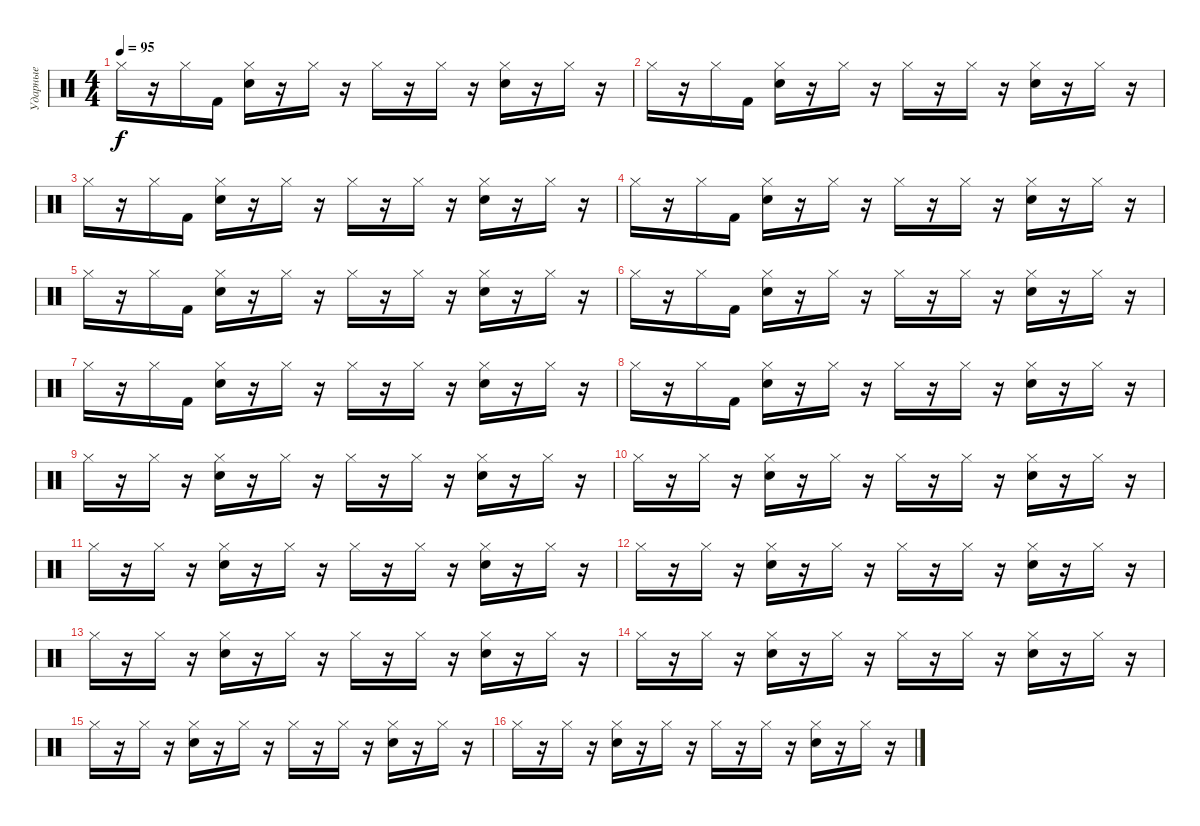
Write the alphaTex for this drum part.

\track ("Ударные" "Ударные") {instrument percussion}
\staff {score}
\articulation defaults
\ts (4 4)
\tempo 95
\clef neutral
\ks c "Hi-Hat (closed)".16{dy f}
r.16 "Hi-Hat (closed)".16 "Kick (hit) 2".16 ("Hi-Hat (closed)" "Electric Snare (hit)").16 r.16 "Hi-Hat (closed)".16 r.16 "Hi-Hat (closed)".16 r.16 "Hi-Hat (closed)".16 r.16 ("Hi-Hat (closed)" "Electric Snare (hit)").16 r.16 "Hi-Hat (closed)".16 r.16 |
"Hi-Hat (closed)".16 r.16 "Hi-Hat (closed)".16 "Kick (hit) 2".16 ("Hi-Hat (closed)" "Electric Snare (hit)").16 r.16 "Hi-Hat (closed)".16 r.16 "Hi-Hat (closed)".16 r.16 "Hi-Hat (closed)".16 r.16 ("Hi-Hat (closed)" "Electric Snare (hit)").16 r.16 "Hi-Hat (closed)".16 r.16 |
"Hi-Hat (closed)".16 r.16 "Hi-Hat (closed)".16 "Kick (hit) 2".16 ("Hi-Hat (closed)" "Electric Snare (hit)").16 r.16 "Hi-Hat (closed)".16 r.16 "Hi-Hat (closed)".16 r.16 "Hi-Hat (closed)".16 r.16 ("Hi-Hat (closed)" "Electric Snare (hit)").16 r.16 "Hi-Hat (closed)".16 r.16 |
"Hi-Hat (closed)".16 r.16 "Hi-Hat (closed)".16 "Kick (hit) 2".16 ("Hi-Hat (closed)" "Electric Snare (hit)").16 r.16 "Hi-Hat (closed)".16 r.16 "Hi-Hat (closed)".16 r.16 "Hi-Hat (closed)".16 r.16 ("Hi-Hat (closed)" "Electric Snare (hit)").16 r.16 "Hi-Hat (closed)".16 r.16 |
"Hi-Hat (closed)".16 r.16 "Hi-Hat (closed)".16 "Kick (hit) 2".16 ("Hi-Hat (closed)" "Electric Snare (hit)").16 r.16 "Hi-Hat (closed)".16 r.16 "Hi-Hat (closed)".16 r.16 "Hi-Hat (closed)".16 r.16 ("Hi-Hat (closed)" "Electric Snare (hit)").16 r.16 "Hi-Hat (closed)".16 r.16 |
"Hi-Hat (closed)".16 r.16 "Hi-Hat (closed)".16 "Kick (hit) 2".16 ("Hi-Hat (closed)" "Electric Snare (hit)").16 r.16 "Hi-Hat (closed)".16 r.16 "Hi-Hat (closed)".16 r.16 "Hi-Hat (closed)".16 r.16 ("Hi-Hat (closed)" "Electric Snare (hit)").16 r.16 "Hi-Hat (closed)".16 r.16 |
"Hi-Hat (closed)".16 r.16 "Hi-Hat (closed)".16 "Kick (hit) 2".16 ("Hi-Hat (closed)" "Electric Snare (hit)").16 r.16 "Hi-Hat (closed)".16 r.16 "Hi-Hat (closed)".16 r.16 "Hi-Hat (closed)".16 r.16 ("Hi-Hat (closed)" "Electric Snare (hit)").16 r.16 "Hi-Hat (closed)".16 r.16 |
"Hi-Hat (closed)".16 r.16 "Hi-Hat (closed)".16 "Kick (hit) 2".16 ("Hi-Hat (closed)" "Electric Snare (hit)").16 r.16 "Hi-Hat (closed)".16 r.16 "Hi-Hat (closed)".16 r.16 "Hi-Hat (closed)".16 r.16 ("Hi-Hat (closed)" "Electric Snare (hit)").16 r.16 "Hi-Hat (closed)".16 r.16 |
"Hi-Hat (closed)".16 r.16 "Hi-Hat (closed)".16 r.16 ("Hi-Hat (closed)" "Electric Snare (hit)").16 r.16 "Hi-Hat (closed)".16 r.16 "Hi-Hat (closed)".16 r.16 "Hi-Hat (closed)".16 r.16 ("Hi-Hat (closed)" "Electric Snare (hit)").16 r.16 "Hi-Hat (closed)".16 r.16 |
"Hi-Hat (closed)".16 r.16 "Hi-Hat (closed)".16 r.16 ("Hi-Hat (closed)" "Electric Snare (hit)").16 r.16 "Hi-Hat (closed)".16 r.16 "Hi-Hat (closed)".16 r.16 "Hi-Hat (closed)".16 r.16 ("Hi-Hat (closed)" "Electric Snare (hit)").16 r.16 "Hi-Hat (closed)".16 r.16 |
"Hi-Hat (closed)".16 r.16 "Hi-Hat (closed)".16 r.16 ("Hi-Hat (closed)" "Electric Snare (hit)").16 r.16 "Hi-Hat (closed)".16 r.16 "Hi-Hat (closed)".16 r.16 "Hi-Hat (closed)".16 r.16 ("Hi-Hat (closed)" "Electric Snare (hit)").16 r.16 "Hi-Hat (closed)".16 r.16 |
"Hi-Hat (closed)".16 r.16 "Hi-Hat (closed)".16 r.16 ("Hi-Hat (closed)" "Electric Snare (hit)").16 r.16 "Hi-Hat (closed)".16 r.16 "Hi-Hat (closed)".16 r.16 "Hi-Hat (closed)".16 r.16 ("Hi-Hat (closed)" "Electric Snare (hit)").16 r.16 "Hi-Hat (closed)".16 r.16 |
"Hi-Hat (closed)".16 r.16 "Hi-Hat (closed)".16 r.16 ("Hi-Hat (closed)" "Electric Snare (hit)").16 r.16 "Hi-Hat (closed)".16 r.16 "Hi-Hat (closed)".16 r.16 "Hi-Hat (closed)".16 r.16 ("Hi-Hat (closed)" "Electric Snare (hit)").16 r.16 "Hi-Hat (closed)".16 r.16 |
"Hi-Hat (closed)".16 r.16 "Hi-Hat (closed)".16 r.16 ("Hi-Hat (closed)" "Electric Snare (hit)").16 r.16 "Hi-Hat (closed)".16 r.16 "Hi-Hat (closed)".16 r.16 "Hi-Hat (closed)".16 r.16 ("Hi-Hat (closed)" "Electric Snare (hit)").16 r.16 "Hi-Hat (closed)".16 r.16 |
"Hi-Hat (closed)".16 r.16 "Hi-Hat (closed)".16 r.16 ("Hi-Hat (closed)" "Electric Snare (hit)").16 r.16 "Hi-Hat (closed)".16 r.16 "Hi-Hat (closed)".16 r.16 "Hi-Hat (closed)".16 r.16 ("Hi-Hat (closed)" "Electric Snare (hit)").16 r.16 "Hi-Hat (closed)".16 r.16 |
"Hi-Hat (closed)".16 r.16 "Hi-Hat (closed)".16 r.16 ("Hi-Hat (closed)" "Electric Snare (hit)").16 r.16 "Hi-Hat (closed)".16 r.16 "Hi-Hat (closed)".16 r.16 "Hi-Hat (closed)".16 r.16 ("Hi-Hat (closed)" "Electric Snare (hit)").16 r.16 "Hi-Hat (closed)".16 r.16
